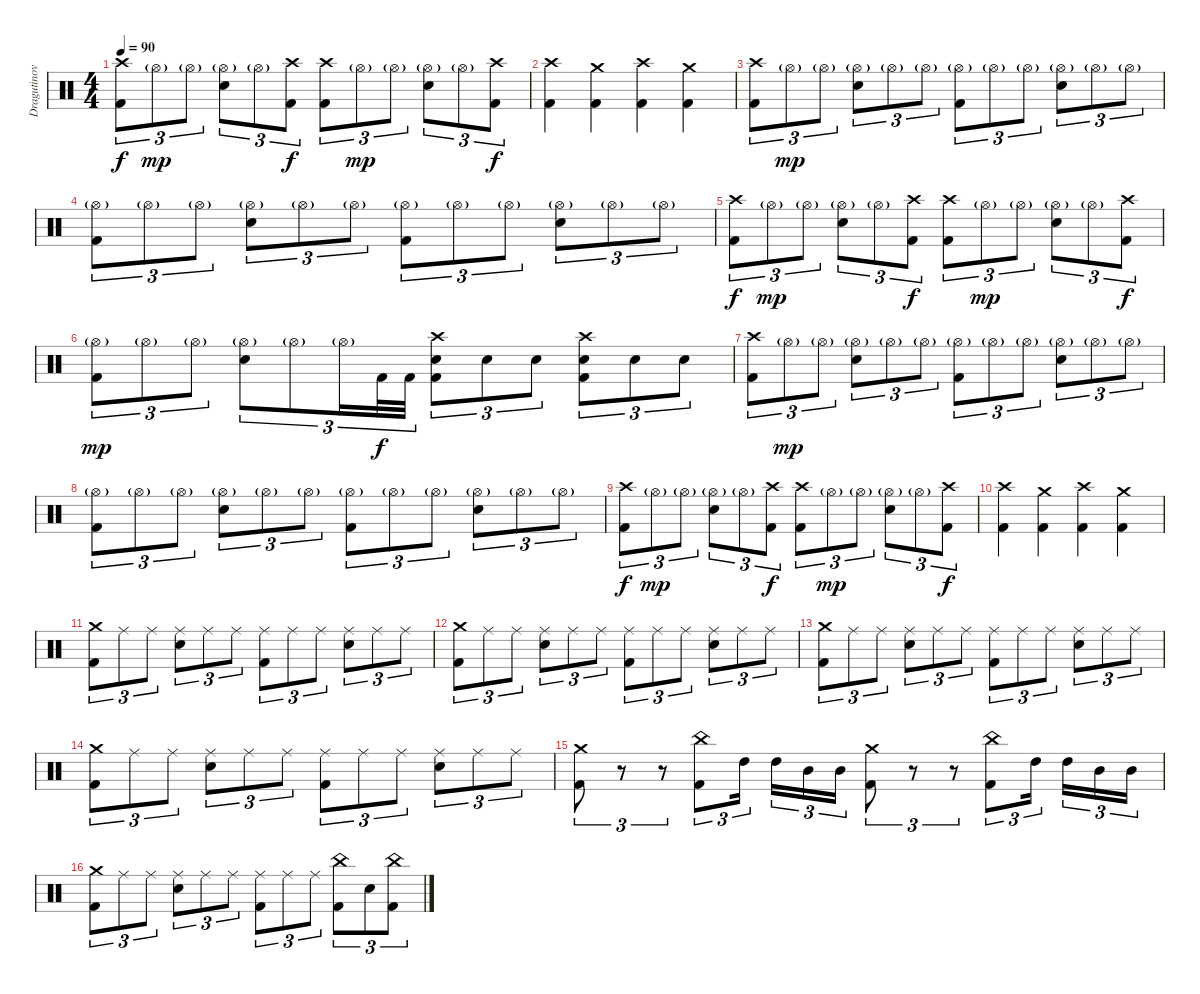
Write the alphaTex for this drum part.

\track ("Dragutinovic" "Dragutinov") {instrument percussion}
\staff {score}
\articulation defaults
\ts (4 4)
\tempo 90
\clef neutral
\ks c
("Crash high (hit)" "Kick (hit) 2").8{tu (3 2) dy f} "Hi-Hat (open)"{g}.8{tu (3 2) dy mp} "Hi-Hat (open)"{g}.8{tu (3 2)} ("Hi-Hat (open)"{g} "Electric Snare (hit)").8{tu (3 2)} "Hi-Hat (open)"{g}.8{tu (3 2)} ("Crash high (hit)" "Kick (hit) 2").8{tu (3 2) dy f} ("Crash high (hit)" "Kick (hit) 2").8{tu (3 2)} "Hi-Hat (open)"{g}.8{tu (3 2) dy mp} "Hi-Hat (open)"{g}.8{tu (3 2)} ("Hi-Hat (open)"{g} "Electric Snare (hit)").8{tu (3 2)} "Hi-Hat (open)"{g}.8{tu (3 2)} ("Crash high (hit)" "Kick (hit) 2").8{tu (3 2) dy f} |
("Crash high (hit)" "Kick (hit) 2").4 ("Crash medium (hit)" "Kick (hit) 2").4 ("Crash high (hit)" "Kick (hit) 2").4 ("Crash medium (hit)" "Kick (hit) 2").4 |
("Crash high (hit)" "Kick (hit) 2").8{tu (3 2)} "Hi-Hat (open)"{g}.8{tu (3 2) dy mp} "Hi-Hat (open)"{g}.8{tu (3 2)} ("Hi-Hat (open)"{g} "Electric Snare (hit)").8{tu (3 2)} "Hi-Hat (open)"{g}.8{tu (3 2)} "Hi-Hat (open)"{g}.8{tu (3 2)} ("Hi-Hat (open)"{g} "Kick (hit) 2").8{tu (3 2)} "Hi-Hat (open)"{g}.8{tu (3 2)} "Hi-Hat (open)"{g}.8{tu (3 2)} ("Hi-Hat (open)"{g} "Electric Snare (hit)").8{tu (3 2)} "Hi-Hat (open)"{g}.8{tu (3 2)} "Hi-Hat (open)"{g}.8{tu (3 2)} |
("Hi-Hat (open)"{g} "Kick (hit) 2").8{tu (3 2)} "Hi-Hat (open)"{g}.8{tu (3 2)} "Hi-Hat (open)"{g}.8{tu (3 2)} ("Hi-Hat (open)"{g} "Electric Snare (hit)").8{tu (3 2)} "Hi-Hat (open)"{g}.8{tu (3 2)} "Hi-Hat (open)"{g}.8{tu (3 2)} ("Hi-Hat (open)"{g} "Kick (hit) 2").8{tu (3 2)} "Hi-Hat (open)"{g}.8{tu (3 2)} "Hi-Hat (open)"{g}.8{tu (3 2)} ("Hi-Hat (open)"{g} "Electric Snare (hit)").8{tu (3 2)} "Hi-Hat (open)"{g}.8{tu (3 2)} "Hi-Hat (open)"{g}.8{tu (3 2)} |
("Crash high (hit)" "Kick (hit) 2").8{tu (3 2) dy f} "Hi-Hat (open)"{g}.8{tu (3 2) dy mp} "Hi-Hat (open)"{g}.8{tu (3 2)} ("Hi-Hat (open)"{g} "Electric Snare (hit)").8{tu (3 2)} "Hi-Hat (open)"{g}.8{tu (3 2)} ("Crash high (hit)" "Kick (hit) 2").8{tu (3 2) dy f} ("Crash high (hit)" "Kick (hit) 2").8{tu (3 2)} "Hi-Hat (open)"{g}.8{tu (3 2) dy mp} "Hi-Hat (open)"{g}.8{tu (3 2)} ("Hi-Hat (open)"{g} "Electric Snare (hit)").8{tu (3 2)} "Hi-Hat (open)"{g}.8{tu (3 2)} ("Crash high (hit)" "Kick (hit) 2").8{tu (3 2) dy f} |
("Hi-Hat (open)"{g} "Kick (hit) 2").8{tu (3 2) dy mp} "Hi-Hat (open)"{g}.8{tu (3 2)} "Hi-Hat (open)"{g}.8{tu (3 2)} ("Hi-Hat (open)"{g} "Electric Snare (hit)").8{tu (3 2)} "Hi-Hat (open)"{g}.8{tu (3 2)} "Hi-Hat (open)"{g}.16{tu (3 2)} "Kick (hit) 2".32{tu (3 2) dy f} "Kick (hit) 2".32{tu (3 2)} ("Crash high (hit)" "Electric Snare (hit)" "Kick (hit) 2").8{tu (3 2)} "Electric Snare (hit)".8{tu (3 2)} "Electric Snare (hit)".8{tu (3 2)} ("Crash high (hit)" "Electric Snare (hit)" "Kick (hit) 2").8{tu (3 2)} "Electric Snare (hit)".8{tu (3 2)} "Electric Snare (hit)".8{tu (3 2)} |
("Crash high (hit)" "Kick (hit) 2").8{tu (3 2)} "Hi-Hat (open)"{g}.8{tu (3 2) dy mp} "Hi-Hat (open)"{g}.8{tu (3 2)} ("Hi-Hat (open)"{g} "Electric Snare (hit)").8{tu (3 2)} "Hi-Hat (open)"{g}.8{tu (3 2)} "Hi-Hat (open)"{g}.8{tu (3 2)} ("Hi-Hat (open)"{g} "Kick (hit) 2").8{tu (3 2)} "Hi-Hat (open)"{g}.8{tu (3 2)} "Hi-Hat (open)"{g}.8{tu (3 2)} ("Hi-Hat (open)"{g} "Electric Snare (hit)").8{tu (3 2)} "Hi-Hat (open)"{g}.8{tu (3 2)} "Hi-Hat (open)"{g}.8{tu (3 2)} |
("Hi-Hat (open)"{g} "Kick (hit) 2").8{tu (3 2)} "Hi-Hat (open)"{g}.8{tu (3 2)} "Hi-Hat (open)"{g}.8{tu (3 2)} ("Hi-Hat (open)"{g} "Electric Snare (hit)").8{tu (3 2)} "Hi-Hat (open)"{g}.8{tu (3 2)} "Hi-Hat (open)"{g}.8{tu (3 2)} ("Hi-Hat (open)"{g} "Kick (hit) 2").8{tu (3 2)} "Hi-Hat (open)"{g}.8{tu (3 2)} "Hi-Hat (open)"{g}.8{tu (3 2)} ("Hi-Hat (open)"{g} "Electric Snare (hit)").8{tu (3 2)} "Hi-Hat (open)"{g}.8{tu (3 2)} "Hi-Hat (open)"{g}.8{tu (3 2)} |
("Crash high (hit)" "Kick (hit) 2").8{tu (3 2) dy f} "Hi-Hat (open)"{g}.8{tu (3 2) dy mp} "Hi-Hat (open)"{g}.8{tu (3 2)} ("Hi-Hat (open)"{g} "Electric Snare (hit)").8{tu (3 2)} "Hi-Hat (open)"{g}.8{tu (3 2)} ("Crash high (hit)" "Kick (hit) 2").8{tu (3 2) dy f} ("Crash high (hit)" "Kick (hit) 2").8{tu (3 2)} "Hi-Hat (open)"{g}.8{tu (3 2) dy mp} "Hi-Hat (open)"{g}.8{tu (3 2)} ("Hi-Hat (open)"{g} "Electric Snare (hit)").8{tu (3 2)} "Hi-Hat (open)"{g}.8{tu (3 2)} ("Crash high (hit)" "Kick (hit) 2").8{tu (3 2) dy f} |
("Crash high (hit)" "Kick (hit) 2").4 ("Crash medium (hit)" "Kick (hit) 2").4 ("Crash high (hit)" "Kick (hit) 2").4 ("Crash medium (hit)" "Kick (hit) 2").4 |
("Crash medium (hit)" "Kick (hit) 2").8{tu (3 2)} "Ride (middle)".8{tu (3 2)} "Ride (middle)".8{tu (3 2)} ("Ride (middle)" "Electric Snare (hit)").8{tu (3 2)} "Ride (middle)".8{tu (3 2)} "Ride (middle)".8{tu (3 2)} ("Ride (middle)" "Kick (hit) 2").8{tu (3 2)} "Ride (middle)".8{tu (3 2)} "Ride (middle)".8{tu (3 2)} ("Ride (middle)" "Electric Snare (hit)").8{tu (3 2)} "Ride (middle)".8{tu (3 2)} "Ride (middle)".8{tu (3 2)} |
("Crash medium (hit)" "Kick (hit) 2").8{tu (3 2)} "Ride (middle)".8{tu (3 2)} "Ride (middle)".8{tu (3 2)} ("Ride (middle)" "Electric Snare (hit)").8{tu (3 2)} "Ride (middle)".8{tu (3 2)} "Ride (middle)".8{tu (3 2)} ("Ride (middle)" "Kick (hit) 2").8{tu (3 2)} "Ride (middle)".8{tu (3 2)} "Ride (middle)".8{tu (3 2)} ("Ride (middle)" "Electric Snare (hit)").8{tu (3 2)} "Ride (middle)".8{tu (3 2)} "Ride (middle)".8{tu (3 2)} |
("Crash medium (hit)" "Kick (hit) 2").8{tu (3 2)} "Ride (middle)".8{tu (3 2)} "Ride (middle)".8{tu (3 2)} ("Ride (middle)" "Electric Snare (hit)").8{tu (3 2)} "Ride (middle)".8{tu (3 2)} "Ride (middle)".8{tu (3 2)} ("Ride (middle)" "Kick (hit) 2").8{tu (3 2)} "Ride (middle)".8{tu (3 2)} "Ride (middle)".8{tu (3 2)} ("Ride (middle)" "Electric Snare (hit)").8{tu (3 2)} "Ride (middle)".8{tu (3 2)} "Ride (middle)".8{tu (3 2)} |
("Crash medium (hit)" "Kick (hit) 2").8{tu (3 2)} "Ride (middle)".8{tu (3 2)} "Ride (middle)".8{tu (3 2)} ("Ride (middle)" "Electric Snare (hit)").8{tu (3 2)} "Ride (middle)".8{tu (3 2)} "Ride (middle)".8{tu (3 2)} ("Ride (middle)" "Kick (hit) 2").8{tu (3 2)} "Ride (middle)".8{tu (3 2)} "Ride (middle)".8{tu (3 2)} ("Ride (middle)" "Electric Snare (hit)").8{tu (3 2)} "Ride (middle)".8{tu (3 2)} "Ride (middle)".8{tu (3 2)} |
("Crash medium (hit)" "Kick (hit) 2").8{tu (3 2)} r.8{tu (3 2)} r.8{tu (3 2)} ("China (hit)" "Kick (hit) 2").8{tu (3 2)} "High Tom (hit)".16{tu (3 2)} "High Tom (hit)".16{tu (3 2)} "Mid Tom (hit)".16{tu (3 2)} "Mid Tom (hit)".16{tu (3 2)} ("Crash medium (hit)" "Kick (hit) 2").8{tu (3 2)} r.8{tu (3 2)} r.8{tu (3 2)} ("China (hit)" "Kick (hit) 2").8{tu (3 2)} "High Tom (hit)".16{tu (3 2)} "High Tom (hit)".16{tu (3 2)} "Mid Tom (hit)".16{tu (3 2)} "Mid Tom (hit)".16{tu (3 2)} |
("Crash medium (hit)" "Kick (hit) 2").8{tu (3 2)} "Ride (middle)".8{tu (3 2)} "Ride (middle)".8{tu (3 2)} ("Ride (middle)" "Electric Snare (hit)").8{tu (3 2)} "Ride (middle)".8{tu (3 2)} "Ride (middle)".8{tu (3 2)} ("Ride (middle)" "Kick (hit) 2").8{tu (3 2)} "Ride (middle)".8{tu (3 2)} "Ride (middle)".8{tu (3 2)} ("China (hit)" "Kick (hit) 2").8{tu (3 2)} "Electric Snare (hit)".8{tu (3 2)} ("China (hit)" "Kick (hit) 2").8{tu (3 2)}
